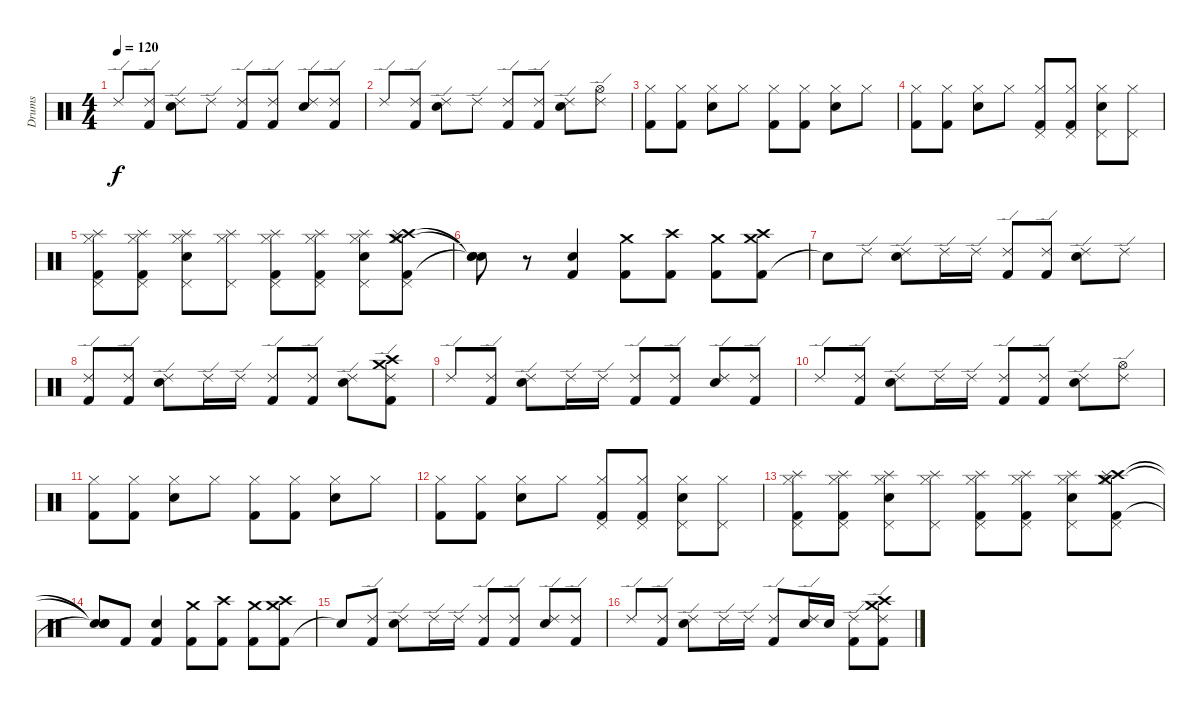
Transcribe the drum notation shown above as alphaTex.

\track ("Drums" "Drums") {instrument percussion}
\staff {score}
\articulation defaults
\ts (4 4)
\tempo 120
\clef neutral
\ks c "Ride (edge) 2".8{dy f}
("Kick (hit) 2" "Ride (edge) 2").8 ("Ride (edge) 2" "Snare (hit) 2").8 "Ride (edge) 2".8 ("Ride (edge) 2" "Kick (hit) 2").8 ("Kick (hit) 2" "Ride (edge) 2").8 ("Ride (edge) 2" "Snare (hit) 2").8 ("Ride (edge) 2" "Kick (hit) 2").8 |
"Ride (edge) 2".8 ("Ride (edge) 2" "Kick (hit) 2").8 ("Ride (edge) 2" "Snare (hit) 2").8 "Ride (edge) 2".8 ("Ride (edge) 2" "Kick (hit) 2").8 ("Kick (hit) 2" "Ride (edge) 2").8 ("Ride (edge) 2" "Snare (hit) 2").8 ("Ride (edge) 2" "Hi-Hat (open)").8 |
("Hi-Hat (closed)" "Kick (hit) 2").8 ("Hi-Hat (closed)" "Kick (hit) 2").8 ("Hi-Hat (closed)" "Snare (hit) 2").8 "Hi-Hat (closed)".8 ("Hi-Hat (closed)" "Kick (hit) 2").8 ("Hi-Hat (closed)" "Kick (hit) 2").8 ("Hi-Hat (closed)" "Snare (hit) 2").8 "Hi-Hat (closed)".8 |
("Hi-Hat (closed)" "Kick (hit) 2").8 ("Hi-Hat (closed)" "Kick (hit) 2").8 ("Hi-Hat (closed)" "Snare (hit) 2").8 "Hi-Hat (closed)".8 ("Pedal Hi-Hat (hit)" "Hi-Hat (closed)" "Kick (hit) 2").8 ("Pedal Hi-Hat (hit)" "Hi-Hat (closed)" "Kick (hit) 2").8 ("Pedal Hi-Hat (hit)" "Hi-Hat (closed)" "Snare (hit) 2").8 ("Pedal Hi-Hat (hit)" "Hi-Hat (closed)").8 |
("Splash (hit)" "Pedal Hi-Hat (hit)" "Hi-Hat (closed)" "Kick (hit) 2").8 ("Splash (hit)" "Pedal Hi-Hat (hit)" "Hi-Hat (closed)" "Kick (hit) 2").8 ("Splash (hit)" "Pedal Hi-Hat (hit)" "Hi-Hat (closed)" "Snare (hit) 2").8 ("Splash (hit)" "Pedal Hi-Hat (hit)" "Hi-Hat (closed)").8 ("Splash (hit)" "Pedal Hi-Hat (hit)" "Hi-Hat (closed)" "Kick (hit) 2").8 ("Splash (hit)" "Pedal Hi-Hat (hit)" "Hi-Hat (closed)" "Kick (hit) 2").8 ("Splash (hit)" "Pedal Hi-Hat (hit)" "Hi-Hat (closed)" "Snare (hit) 2").8 ("Crash medium (hit)" "Crash high (hit)" "Kick (hit) 2" "Splash (hit)" "Pedal Hi-Hat (hit)" "Hi-Hat (closed)").8 |
("Snare (hit)"{t} "Snare (hit)"{t} "Snare (hit)"{t}).8 r.8 ("Snare (hit) 2" "Kick (hit) 2").4 ("Kick (hit) 2" "Crash medium (hit)").8 ("Kick (hit) 2" "Crash high (hit)").8 ("Kick (hit) 2" "Crash medium (hit)").8 ("Kick (hit) 2" "Crash high (hit)" "Crash medium (hit)").8 |
"Snare (hit)"{t}.8 "Ride (edge) 2".8 ("Ride (edge) 2" "Snare (hit) 2").8 "Ride (edge) 2".16 "Ride (edge) 2".16 ("Ride (edge) 2" "Kick (hit) 2").8 ("Ride (edge) 2" "Kick (hit) 2").8 ("Ride (edge) 2" "Snare (hit) 2").8 "Ride (edge) 2".8 |
("Ride (edge) 2" "Kick (hit) 2").8 ("Ride (edge) 2" "Kick (hit) 2").8 ("Ride (edge) 2" "Snare (hit) 2").8 "Ride (edge) 2".16 "Ride (edge) 2".16 ("Ride (edge) 2" "Kick (hit) 2").8 ("Ride (edge) 2" "Kick (hit) 2").8 ("Ride (edge) 2" "Snare (hit) 2").8 ("Ride (edge) 2" "Kick (hit) 2" "Crash high (hit)" "Crash medium (hit)").8 |
"Ride (edge) 2".8 ("Ride (edge) 2" "Kick (hit) 2").8 ("Ride (edge) 2" "Snare (hit) 2").8 "Ride (edge) 2".16 "Ride (edge) 2".16 ("Ride (edge) 2" "Kick (hit) 2").8 ("Ride (edge) 2" "Kick (hit) 2").8 ("Ride (edge) 2" "Snare (hit) 2").8 ("Ride (edge) 2" "Kick (hit) 2").8 |
"Ride (edge) 2".8 ("Ride (edge) 2" "Kick (hit) 2").8 ("Ride (edge) 2" "Snare (hit) 2").8 "Ride (edge) 2".16 "Ride (edge) 2".16 ("Ride (edge) 2" "Kick (hit) 2").8 ("Ride (edge) 2" "Kick (hit) 2").8 ("Ride (edge) 2" "Snare (hit) 2").8 ("Hi-Hat (open)" "Ride (edge) 2").8 |
("Hi-Hat (closed)" "Kick (hit) 2").8 ("Hi-Hat (closed)" "Kick (hit) 2").8 ("Hi-Hat (closed)" "Snare (hit) 2").8 "Hi-Hat (closed)".8 ("Hi-Hat (closed)" "Kick (hit) 2").8 ("Hi-Hat (closed)" "Kick (hit) 2").8 ("Hi-Hat (closed)" "Snare (hit) 2").8 "Hi-Hat (closed)".8 |
("Hi-Hat (closed)" "Kick (hit) 2").8 ("Hi-Hat (closed)" "Kick (hit) 2").8 ("Hi-Hat (closed)" "Snare (hit) 2").8 "Hi-Hat (closed)".8 ("Pedal Hi-Hat (hit)" "Hi-Hat (closed)" "Kick (hit) 2").8 ("Pedal Hi-Hat (hit)" "Hi-Hat (closed)" "Kick (hit) 2").8 ("Pedal Hi-Hat (hit)" "Hi-Hat (closed)" "Snare (hit) 2").8 ("Pedal Hi-Hat (hit)" "Hi-Hat (closed)").8 |
("Splash (hit)" "Pedal Hi-Hat (hit)" "Hi-Hat (closed)" "Kick (hit) 2").8 ("Splash (hit)" "Pedal Hi-Hat (hit)" "Hi-Hat (closed)" "Kick (hit) 2").8 ("Splash (hit)" "Pedal Hi-Hat (hit)" "Hi-Hat (closed)" "Snare (hit) 2").8 ("Splash (hit)" "Pedal Hi-Hat (hit)" "Hi-Hat (closed)").8 ("Splash (hit)" "Pedal Hi-Hat (hit)" "Hi-Hat (closed)" "Kick (hit) 2").8 ("Splash (hit)" "Pedal Hi-Hat (hit)" "Hi-Hat (closed)" "Kick (hit) 2").8 ("Splash (hit)" "Pedal Hi-Hat (hit)" "Hi-Hat (closed)" "Snare (hit) 2").8 ("Crash medium (hit)" "Crash high (hit)" "Kick (hit) 2" "Splash (hit)" "Pedal Hi-Hat (hit)" "Hi-Hat (closed)").8 |
("Snare (hit)"{t} "Snare (hit)"{t} "Snare (hit)"{t}).8 "Kick (hit) 2".8 ("Snare (hit) 2" "Kick (hit) 2").4 ("Crash medium (hit)" "Kick (hit) 2").8 ("Kick (hit) 2" "Crash high (hit)").8 ("Kick (hit) 2" "Crash medium (hit)").8 ("Kick (hit) 2" "Crash high (hit)" "Crash medium (hit)").8 |
"Snare (hit)"{t}.8 ("Ride (edge) 2" "Kick (hit) 2").8 ("Ride (edge) 2" "Snare (hit) 2").8 "Ride (edge) 2".16 "Ride (edge) 2".16 ("Ride (edge) 2" "Kick (hit) 2").8 ("Ride (edge) 2" "Kick (hit) 2").8 ("Ride (edge) 2" "Snare (hit) 2").8 ("Ride (edge) 2" "Kick (hit) 2").8 |
"Ride (edge) 2".8 ("Ride (edge) 2" "Kick (hit) 2").8 ("Ride (edge) 2" "Snare (hit) 2").8 "Ride (edge) 2".16 "Ride (edge) 2".16 ("Ride (edge) 2" "Kick (hit) 2").8 ("Ride (edge) 2" "Snare (hit) 2").16 "Snare (hit) 2".16 ("Ride (edge) 2" "Kick (hit) 2").8 ("Kick (hit) 2" "Ride (edge) 2" "Crash high (hit)" "Crash medium (hit)").8
